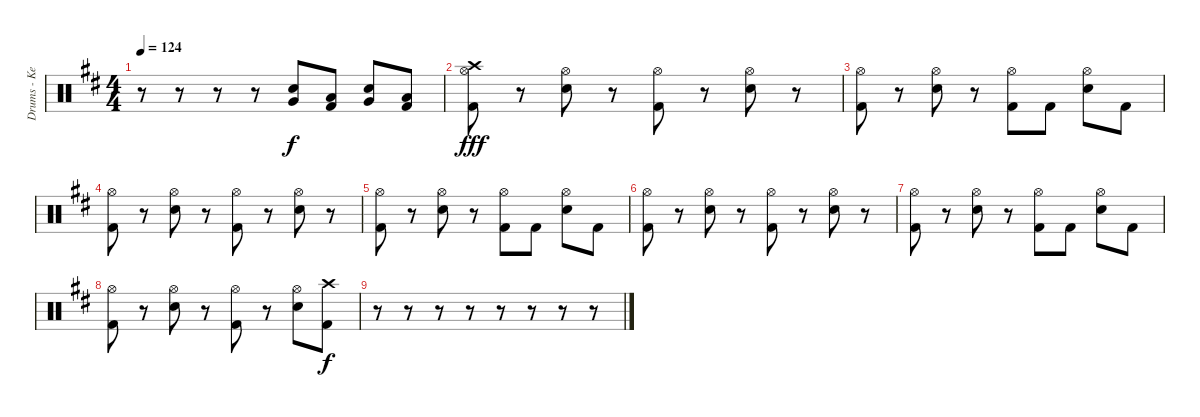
\track ("Drums - Kevin Frank" "Drums - Ke") {instrument percussion}
\staff {score}
\articulation defaults
\ts (4 4)
\tempo 124
\clef neutral
\ks d
r.8{dy f} r.8 r.8 r.8 ("Very Low Tom (hit)" "Snare (hit) 2").8 ("Low Floor Tom (hit)" "Kick (hit) 2").8 ("Very Low Tom (hit)" "Snare (hit) 2").8 ("Low Floor Tom (hit)" "Kick (hit) 2").8 |
("Crash high (hit)" "Hi-Hat (open)" "Kick (hit) 2").8{dy fff} r.8 ("Hi-Hat (open)" "Snare (hit) 2").8 r.8 ("Hi-Hat (open)" "Kick (hit) 2").8 r.8 ("Hi-Hat (open)" "Snare (hit) 2").8 r.8 |
("Hi-Hat (open)" "Kick (hit) 2").8 r.8 ("Hi-Hat (open)" "Snare (hit) 2").8 r.8 ("Hi-Hat (open)" "Kick (hit) 2").8 "Kick (hit) 2".8 ("Hi-Hat (open)" "Snare (hit) 2").8 "Kick (hit) 2".8 |
("Hi-Hat (open)" "Kick (hit) 2").8 r.8 ("Hi-Hat (open)" "Snare (hit) 2").8 r.8 ("Hi-Hat (open)" "Kick (hit) 2").8 r.8 ("Hi-Hat (open)" "Snare (hit) 2").8 r.8 |
("Hi-Hat (open)" "Kick (hit) 2").8 r.8 ("Hi-Hat (open)" "Snare (hit) 2").8 r.8 ("Hi-Hat (open)" "Kick (hit) 2").8 "Kick (hit) 2".8 ("Hi-Hat (open)" "Snare (hit) 2").8 "Kick (hit) 2".8 |
("Hi-Hat (open)" "Kick (hit) 2").8 r.8 ("Hi-Hat (open)" "Snare (hit) 2").8 r.8 ("Hi-Hat (open)" "Kick (hit) 2").8 r.8 ("Hi-Hat (open)" "Snare (hit) 2").8 r.8 |
("Hi-Hat (open)" "Kick (hit) 2").8 r.8 ("Hi-Hat (open)" "Snare (hit) 2").8 r.8 ("Hi-Hat (open)" "Kick (hit) 2").8 "Kick (hit) 2".8 ("Hi-Hat (open)" "Snare (hit) 2").8 "Kick (hit) 2".8 |
("Hi-Hat (open)" "Kick (hit) 2").8 r.8 ("Hi-Hat (open)" "Snare (hit) 2").8 r.8 ("Hi-Hat (open)" "Kick (hit) 2").8 r.8 ("Hi-Hat (open)" "Snare (hit) 2").8 ("Crash high (hit)" "Kick (hit) 2").8{dy f} |
r.8 r.8 r.8 r.8 r.8 r.8 r.8 r.8
